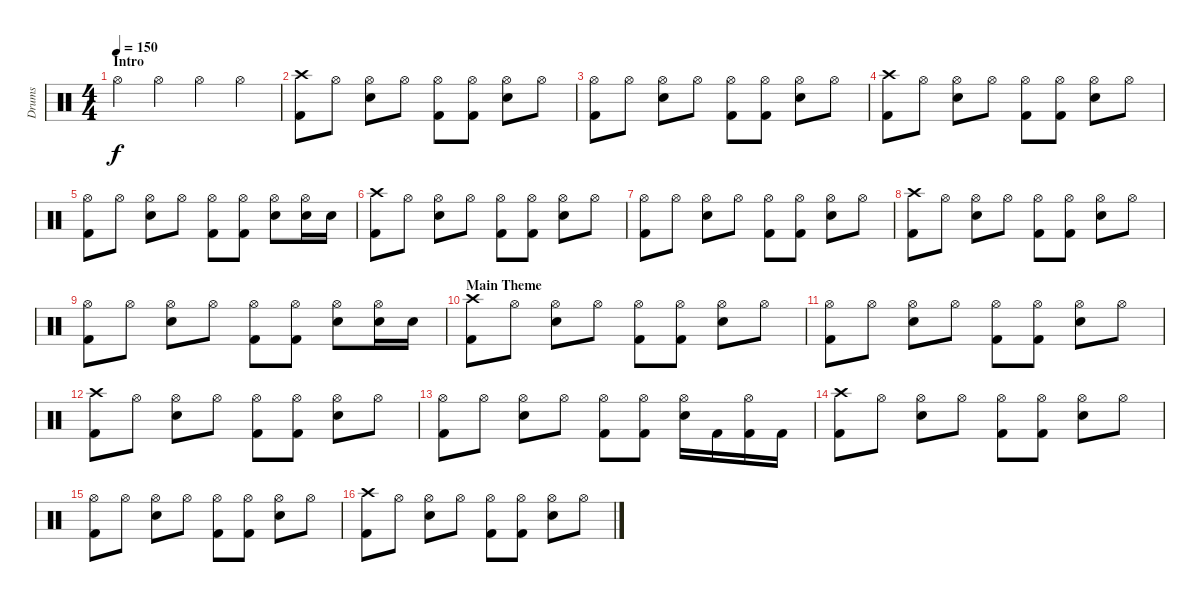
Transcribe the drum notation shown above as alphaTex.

\track ("Drums" "Drums") {instrument percussion}
\staff {score}
\articulation defaults
\ts (4 4)
\section ("" "Intro")
\tempo 150
\clef neutral
\ks c "Hi-Hat (open)".4{dy f} "Hi-Hat (open)".4 "Hi-Hat (open)".4 "Hi-Hat (open)".4
|
("Crash high (hit)" "Kick (hit) 2").8 "Hi-Hat (open)".8 ("Hi-Hat (open)" "Snare (hit) 2").8 "Hi-Hat (open)".8 ("Hi-Hat (open)" "Kick (hit) 2").8 ("Hi-Hat (open)" "Kick (hit) 2").8 ("Hi-Hat (open)" "Snare (hit) 2").8 "Hi-Hat (open)".8 |
("Hi-Hat (open)" "Kick (hit) 2").8 "Hi-Hat (open)".8 ("Hi-Hat (open)" "Snare (hit) 2").8 "Hi-Hat (open)".8 ("Hi-Hat (open)" "Kick (hit) 2").8 ("Hi-Hat (open)" "Kick (hit) 2").8 ("Hi-Hat (open)" "Snare (hit) 2").8 "Hi-Hat (open)".8 |
("Crash high (hit)" "Kick (hit) 2").8 "Hi-Hat (open)".8 ("Hi-Hat (open)" "Snare (hit) 2").8 "Hi-Hat (open)".8 ("Hi-Hat (open)" "Kick (hit) 2").8 ("Hi-Hat (open)" "Kick (hit) 2").8 ("Hi-Hat (open)" "Snare (hit) 2").8 "Hi-Hat (open)".8 |
("Hi-Hat (open)" "Kick (hit) 2").8 "Hi-Hat (open)".8 ("Hi-Hat (open)" "Snare (hit) 2").8 "Hi-Hat (open)".8 ("Hi-Hat (open)" "Kick (hit) 2").8 ("Hi-Hat (open)" "Kick (hit) 2").8 ("Hi-Hat (open)" "Snare (hit) 2").8 ("Hi-Hat (open)" "Snare (hit) 2").16 "Snare (hit) 2".16 |
("Crash high (hit)" "Kick (hit) 2").8 "Hi-Hat (open)".8 ("Hi-Hat (open)" "Snare (hit) 2").8 "Hi-Hat (open)".8 ("Hi-Hat (open)" "Kick (hit) 2").8 ("Hi-Hat (open)" "Kick (hit) 2").8 ("Hi-Hat (open)" "Snare (hit) 2").8 "Hi-Hat (open)".8 |
("Hi-Hat (open)" "Kick (hit) 2").8 "Hi-Hat (open)".8 ("Hi-Hat (open)" "Snare (hit) 2").8 "Hi-Hat (open)".8 ("Hi-Hat (open)" "Kick (hit) 2").8 ("Hi-Hat (open)" "Kick (hit) 2").8 ("Hi-Hat (open)" "Snare (hit) 2").8 "Hi-Hat (open)".8 |
("Crash high (hit)" "Kick (hit) 2").8 "Hi-Hat (open)".8 ("Hi-Hat (open)" "Snare (hit) 2").8 "Hi-Hat (open)".8 ("Hi-Hat (open)" "Kick (hit) 2").8 ("Hi-Hat (open)" "Kick (hit) 2").8 ("Hi-Hat (open)" "Snare (hit) 2").8 "Hi-Hat (open)".8 |
("Hi-Hat (open)" "Kick (hit) 2").8 "Hi-Hat (open)".8 ("Hi-Hat (open)" "Snare (hit) 2").8 "Hi-Hat (open)".8 ("Hi-Hat (open)" "Kick (hit) 2").8 ("Hi-Hat (open)" "Kick (hit) 2").8 ("Hi-Hat (open)" "Snare (hit) 2").8 ("Hi-Hat (open)" "Snare (hit) 2").16 "Snare (hit) 2".16 |
\section ("" "Main Theme")
("Crash high (hit)" "Kick (hit) 2").8 "Hi-Hat (open)".8 ("Hi-Hat (open)" "Snare (hit) 2").8 "Hi-Hat (open)".8 ("Hi-Hat (open)" "Kick (hit) 2").8 ("Hi-Hat (open)" "Kick (hit) 2").8 ("Hi-Hat (open)" "Snare (hit) 2").8 "Hi-Hat (open)".8 |
("Hi-Hat (open)" "Kick (hit) 2").8 "Hi-Hat (open)".8 ("Hi-Hat (open)" "Snare (hit) 2").8 "Hi-Hat (open)".8 ("Hi-Hat (open)" "Kick (hit) 2").8 ("Hi-Hat (open)" "Kick (hit) 2").8 ("Hi-Hat (open)" "Snare (hit) 2").8 "Hi-Hat (open)".8 |
("Crash high (hit)" "Kick (hit) 2").8 "Hi-Hat (open)".8 ("Hi-Hat (open)" "Snare (hit) 2").8 "Hi-Hat (open)".8 ("Hi-Hat (open)" "Kick (hit) 2").8 ("Hi-Hat (open)" "Kick (hit) 2").8 ("Hi-Hat (open)" "Snare (hit) 2").8 "Hi-Hat (open)".8 |
("Hi-Hat (open)" "Kick (hit) 2").8 "Hi-Hat (open)".8 ("Hi-Hat (open)" "Snare (hit) 2").8 "Hi-Hat (open)".8 ("Hi-Hat (open)" "Kick (hit) 2").8 ("Hi-Hat (open)" "Kick (hit) 2").8 ("Hi-Hat (open)" "Snare (hit) 2").16 "Kick (hit) 2".16 ("Hi-Hat (open)" "Kick (hit) 2").16 "Kick (hit) 2".16 |
("Crash high (hit)" "Kick (hit) 2").8 "Hi-Hat (open)".8 ("Hi-Hat (open)" "Snare (hit) 2").8 "Hi-Hat (open)".8 ("Hi-Hat (open)" "Kick (hit) 2").8 ("Hi-Hat (open)" "Kick (hit) 2").8 ("Hi-Hat (open)" "Snare (hit) 2").8 "Hi-Hat (open)".8 |
("Hi-Hat (open)" "Kick (hit) 2").8 "Hi-Hat (open)".8 ("Hi-Hat (open)" "Snare (hit) 2").8 "Hi-Hat (open)".8 ("Hi-Hat (open)" "Kick (hit) 2").8 ("Hi-Hat (open)" "Kick (hit) 2").8 ("Hi-Hat (open)" "Snare (hit) 2").8 "Hi-Hat (open)".8 |
("Crash high (hit)" "Kick (hit) 2").8 "Hi-Hat (open)".8 ("Hi-Hat (open)" "Snare (hit) 2").8 "Hi-Hat (open)".8 ("Hi-Hat (open)" "Kick (hit) 2").8 ("Hi-Hat (open)" "Kick (hit) 2").8 ("Hi-Hat (open)" "Snare (hit) 2").8 "Hi-Hat (open)".8
